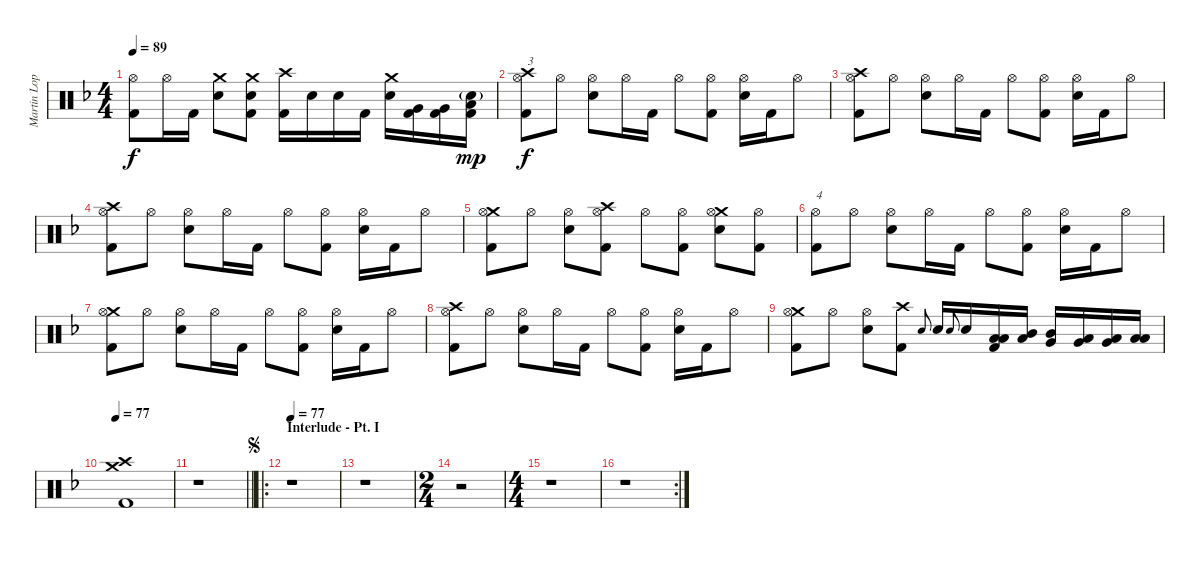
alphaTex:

\track ("Martin Lopez - Drums" "Martin Lop") {instrument percussion}
\staff {score}
\articulation defaults
\ts (4 4)
\tempo 89
\clef neutral
\ks f
("Hi-Hat (open)" "Kick (hit) 2").8{dy f} "Hi-Hat (open)".16 "Kick (hit) 2".16 ("Crash medium (hit)" "Electric Snare (hit)").8 ("Crash medium (hit)" "Electric Snare (hit)" "Kick (hit) 2").8 ("Crash high (hit)" "Kick (hit) 2").16 "Electric Snare (hit)".16 "Electric Snare (hit)".16 "Kick (hit) 2".16 ("Crash medium (hit)" "Electric Snare (hit)").16 ("Very Low Tom (hit)" "Kick (hit) 2").16 ("Very Low Tom (hit)" "Kick (hit) 2").16 ("Low Floor Tom (hit)" "Electric Snare (hit)"{g} "Kick (hit) 2").16{dy mp} |
("Crash high (hit)" "Hi-Hat (open)" "Kick (hit) 2").8{txt "3" dy f} "Hi-Hat (open)".8 ("Hi-Hat (open)" "Electric Snare (hit)").8 "Hi-Hat (open)".16 "Kick (hit) 2".16 "Hi-Hat (open)".8 ("Hi-Hat (open)" "Kick (hit) 2").8 ("Hi-Hat (open)" "Electric Snare (hit)").16 "Kick (hit) 2".16 "Hi-Hat (open)".8 |
("Crash high (hit)" "Hi-Hat (open)" "Kick (hit) 2").8 "Hi-Hat (open)".8 ("Hi-Hat (open)" "Electric Snare (hit)").8 "Hi-Hat (open)".16 "Kick (hit) 2".16 "Hi-Hat (open)".8 ("Hi-Hat (open)" "Kick (hit) 2").8 ("Hi-Hat (open)" "Electric Snare (hit)").16 "Kick (hit) 2".16 "Hi-Hat (open)".8 |
("Crash high (hit)" "Hi-Hat (open)" "Kick (hit) 2").8 "Hi-Hat (open)".8 ("Hi-Hat (open)" "Electric Snare (hit)").8 "Hi-Hat (open)".16 "Kick (hit) 2".16 "Hi-Hat (open)".8 ("Hi-Hat (open)" "Kick (hit) 2").8 ("Hi-Hat (open)" "Electric Snare (hit)").16 "Kick (hit) 2".16 "Hi-Hat (open)".8 |
("Crash medium (hit)" "Hi-Hat (open)" "Kick (hit) 2").8 "Hi-Hat (open)".8 ("Hi-Hat (open)" "Electric Snare (hit)").8 ("Crash high (hit)" "Hi-Hat (open)" "Kick (hit) 2").8 "Hi-Hat (open)".8 ("Hi-Hat (open)" "Kick (hit) 2").8 ("Crash medium (hit)" "Hi-Hat (open)" "Electric Snare (hit)").8 ("Hi-Hat (open)" "Kick (hit) 2").8 |
("Hi-Hat (open)" "Kick (hit) 2").8{txt "4"} "Hi-Hat (open)".8 ("Hi-Hat (open)" "Electric Snare (hit)").8 "Hi-Hat (open)".16 "Kick (hit) 2".16 "Hi-Hat (open)".8 ("Hi-Hat (open)" "Kick (hit) 2").8 ("Hi-Hat (open)" "Electric Snare (hit)").16 "Kick (hit) 2".16 "Hi-Hat (open)".8 |
("Crash medium (hit)" "Hi-Hat (open)" "Kick (hit) 2").8 "Hi-Hat (open)".8 ("Hi-Hat (open)" "Electric Snare (hit)").8 "Hi-Hat (open)".16 "Kick (hit) 2".16 "Hi-Hat (open)".8 ("Hi-Hat (open)" "Kick (hit) 2").8 ("Hi-Hat (open)" "Electric Snare (hit)").16 "Kick (hit) 2".16 "Hi-Hat (open)".8 |
("Crash high (hit)" "Hi-Hat (open)" "Kick (hit) 2").8 "Hi-Hat (open)".8 ("Hi-Hat (open)" "Electric Snare (hit)").8 "Hi-Hat (open)".16 "Kick (hit) 2".16 "Hi-Hat (open)".8 ("Hi-Hat (open)" "Kick (hit) 2").8 ("Hi-Hat (open)" "Electric Snare (hit)").16 "Kick (hit) 2".16 "Hi-Hat (open)".8 |
("Crash medium (hit)" "Hi-Hat (open)" "Kick (hit) 2").8 "Hi-Hat (open)".8 ("Hi-Hat (open)" "Electric Snare (hit)").8 ("Crash high (hit)" "Kick (hit) 2").8 "Electric Snare (hit)".8{gr onbeat} "Electric Snare (hit)".16 "Electric Snare (hit)".8{gr onbeat} "Electric Snare (hit)".16 ("Low Tom (hit)" "Low Tom (hit)" "Kick (hit) 2").16 ("Mid Tom (hit)" "Low Tom (hit)").16 ("Mid Tom (hit)" "Very Low Tom (hit)").16 ("Low Tom (hit)" "Very Low Tom (hit)").16 ("Very Low Tom (hit)" "Low Floor Tom (hit)").16 ("Low Floor Tom (hit)" "Low Floor Tom (hit)").16 |
\tempo 77
("Crash medium (hit)" "Crash high (hit)" "Kick (hit) 2").1 |
\barLineRight lightlight
r.1 |
\ro
\section ("" "Interlude - Pt. I")
\jump segno
\tempo 77
r.1 |
r.1 |
\ts (2 4)
r.2 |
\ts (4 4)
r.1 |
\rc 2
r.1
